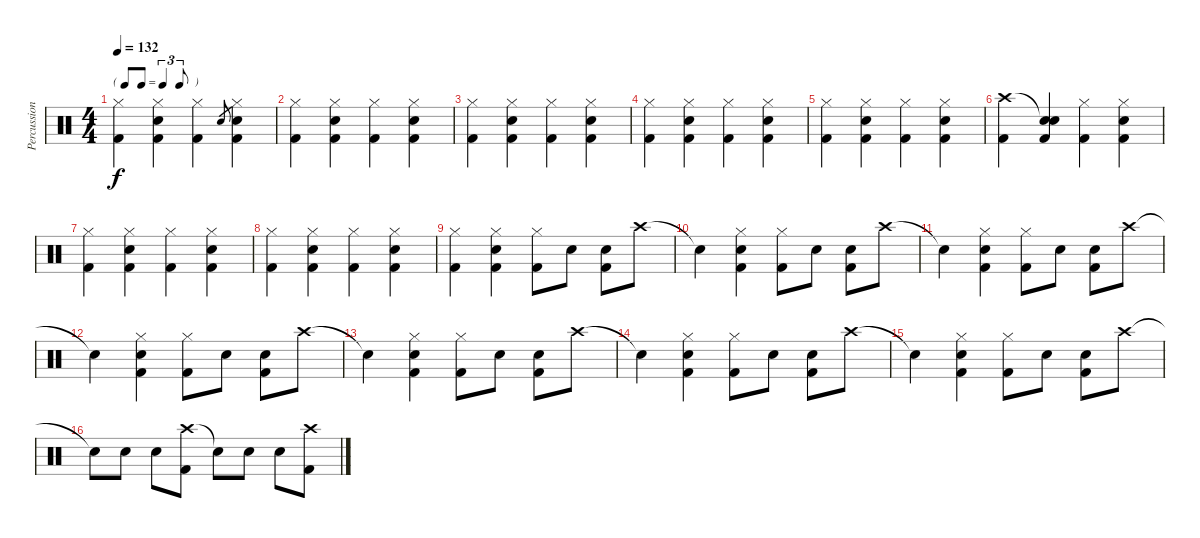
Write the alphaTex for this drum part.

\track ("Percussion" "Percussion") {instrument percussion}
\staff {score}
\articulation defaults
\ts (4 4)
\tf triplet8th
\tempo 132
\clef neutral
\ks c
("Hi-Hat (closed)" "Kick (hit) 2").4{dy f} ("Hi-Hat (closed)" "Snare (hit) 2" "Kick (hit) 2").4 ("Hi-Hat (closed)" "Kick (hit) 2").4 "Snare (hit) 2".8{gr} ("Hi-Hat (closed)" "Snare (hit) 2" "Kick (hit) 2").4 |
("Hi-Hat (closed)" "Kick (hit) 2").4 ("Hi-Hat (closed)" "Snare (hit) 2" "Kick (hit) 2").4 ("Hi-Hat (closed)" "Kick (hit) 2").4 ("Hi-Hat (closed)" "Snare (hit) 2" "Kick (hit) 2").4 |
("Hi-Hat (closed)" "Kick (hit) 2").4 ("Hi-Hat (closed)" "Snare (hit) 2" "Kick (hit) 2").4 ("Hi-Hat (closed)" "Kick (hit) 2").4 ("Hi-Hat (closed)" "Snare (hit) 2" "Kick (hit) 2").4 |
("Hi-Hat (closed)" "Kick (hit) 2").4 ("Hi-Hat (closed)" "Snare (hit) 2" "Kick (hit) 2").4 ("Hi-Hat (closed)" "Kick (hit) 2").4 ("Hi-Hat (closed)" "Snare (hit) 2" "Kick (hit) 2").4 |
("Hi-Hat (closed)" "Kick (hit) 2").4 ("Hi-Hat (closed)" "Snare (hit) 2" "Kick (hit) 2").4 ("Hi-Hat (closed)" "Kick (hit) 2").4 ("Hi-Hat (closed)" "Snare (hit) 2" "Kick (hit) 2").4 |
("Crash high (hit)" "Kick (hit) 2").4 ("Snare (hit)"{t} "Snare (hit) 2" "Kick (hit) 2").4 ("Hi-Hat (closed)" "Kick (hit) 2").4 ("Hi-Hat (closed)" "Snare (hit) 2" "Kick (hit) 2").4 |
("Hi-Hat (closed)" "Kick (hit) 2").4 ("Hi-Hat (closed)" "Snare (hit) 2" "Kick (hit) 2").4 ("Hi-Hat (closed)" "Kick (hit) 2").4 ("Hi-Hat (closed)" "Snare (hit) 2" "Kick (hit) 2").4 |
("Hi-Hat (closed)" "Kick (hit) 2").4 ("Hi-Hat (closed)" "Snare (hit) 2" "Kick (hit) 2").4 ("Hi-Hat (closed)" "Kick (hit) 2").4 ("Hi-Hat (closed)" "Snare (hit) 2" "Kick (hit) 2").4 |
("Hi-Hat (closed)" "Kick (hit) 2").4 ("Hi-Hat (closed)" "Snare (hit) 2" "Kick (hit) 2").4 ("Hi-Hat (closed)" "Kick (hit) 2").8 "Snare (hit) 2".8 ("Snare (hit) 2" "Kick (hit) 2").8 "Crash high (hit)".8 |
"Snare (hit)"{t}.4 ("Hi-Hat (closed)" "Snare (hit) 2" "Kick (hit) 2").4 ("Hi-Hat (closed)" "Kick (hit) 2").8 "Snare (hit) 2".8 ("Snare (hit) 2" "Kick (hit) 2").8 "Crash high (hit)".8 |
"Snare (hit)"{t}.4 ("Hi-Hat (closed)" "Snare (hit) 2" "Kick (hit) 2").4 ("Hi-Hat (closed)" "Kick (hit) 2").8 "Snare (hit) 2".8 ("Snare (hit) 2" "Kick (hit) 2").8 "Crash high (hit)".8 |
"Snare (hit)"{t}.4 ("Hi-Hat (closed)" "Snare (hit) 2" "Kick (hit) 2").4 ("Hi-Hat (closed)" "Kick (hit) 2").8 "Snare (hit) 2".8 ("Snare (hit) 2" "Kick (hit) 2").8 "Crash high (hit)".8 |
"Snare (hit)"{t}.4 ("Hi-Hat (closed)" "Snare (hit) 2" "Kick (hit) 2").4 ("Hi-Hat (closed)" "Kick (hit) 2").8 "Snare (hit) 2".8 ("Snare (hit) 2" "Kick (hit) 2").8 "Crash high (hit)".8 |
"Snare (hit)"{t}.4 ("Hi-Hat (closed)" "Snare (hit) 2" "Kick (hit) 2").4 ("Hi-Hat (closed)" "Kick (hit) 2").8 "Snare (hit) 2".8 ("Snare (hit) 2" "Kick (hit) 2").8 "Crash high (hit)".8 |
"Snare (hit)"{t}.4 ("Hi-Hat (closed)" "Snare (hit) 2" "Kick (hit) 2").4 ("Hi-Hat (closed)" "Kick (hit) 2").8 "Snare (hit) 2".8 ("Snare (hit) 2" "Kick (hit) 2").8 "Crash high (hit)".8 |
"Snare (hit)"{t}.8 "Snare (hit) 2".8 "Snare (hit) 2".8 ("Crash high (hit)" "Kick (hit) 2").8 "Snare (hit)"{t}.8 "Snare (hit) 2".8 "Snare (hit) 2".8 ("Crash high (hit)" "Kick (hit) 2").8
